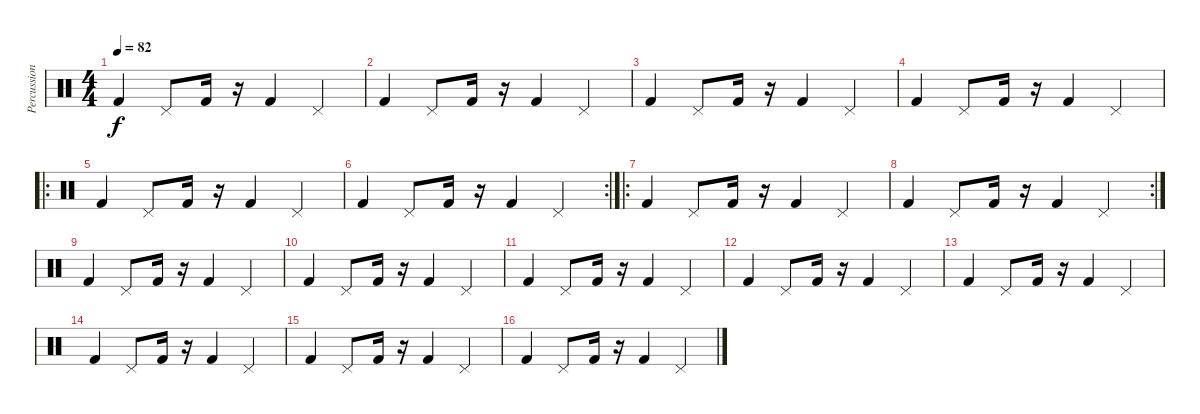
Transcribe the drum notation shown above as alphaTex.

\track ("Percussions" "Percussion") {instrument percussion}
\staff {score}
\articulation defaults
\ts (4 4)
\tempo 82
\clef neutral
\ks c "Kick (hit) 2".4{dy f} "Pedal Hi-Hat (hit)".8 "Kick (hit) 2".16
r.16 "Kick (hit) 2".4 "Pedal Hi-Hat (hit)".4 |
"Kick (hit) 2".4 "Pedal Hi-Hat (hit)".8 "Kick (hit) 2".16 r.16 "Kick (hit) 2".4 "Pedal Hi-Hat (hit)".4 |
"Kick (hit) 2".4 "Pedal Hi-Hat (hit)".8 "Kick (hit) 2".16 r.16 "Kick (hit) 2".4 "Pedal Hi-Hat (hit)".4 |
"Kick (hit) 2".4 "Pedal Hi-Hat (hit)".8 "Kick (hit) 2".16 r.16 "Kick (hit) 2".4 "Pedal Hi-Hat (hit)".4 |
\ro "Kick (hit) 2".4 "Pedal Hi-Hat (hit)".8 "Kick (hit) 2".16
r.16 "Kick (hit) 2".4 "Pedal Hi-Hat (hit)".4 |
\rc 2 "Kick (hit) 2".4 "Pedal Hi-Hat (hit)".8 "Kick (hit) 2".16
r.16 "Kick (hit) 2".4 "Pedal Hi-Hat (hit)".4 |
\ro "Kick (hit) 2".4 "Pedal Hi-Hat (hit)".8 "Kick (hit) 2".16
r.16 "Kick (hit) 2".4 "Pedal Hi-Hat (hit)".4 |
\rc 2 "Kick (hit) 2".4 "Pedal Hi-Hat (hit)".8 "Kick (hit) 2".16
r.16 "Kick (hit) 2".4 "Pedal Hi-Hat (hit)".4 |
"Kick (hit) 2".4 "Pedal Hi-Hat (hit)".8 "Kick (hit) 2".16 r.16 "Kick (hit) 2".4 "Pedal Hi-Hat (hit)".4 |
"Kick (hit) 2".4 "Pedal Hi-Hat (hit)".8 "Kick (hit) 2".16 r.16 "Kick (hit) 2".4 "Pedal Hi-Hat (hit)".4 |
"Kick (hit) 2".4 "Pedal Hi-Hat (hit)".8 "Kick (hit) 2".16 r.16 "Kick (hit) 2".4 "Pedal Hi-Hat (hit)".4 |
"Kick (hit) 2".4 "Pedal Hi-Hat (hit)".8 "Kick (hit) 2".16 r.16 "Kick (hit) 2".4 "Pedal Hi-Hat (hit)".4 |
"Kick (hit) 2".4 "Pedal Hi-Hat (hit)".8 "Kick (hit) 2".16 r.16 "Kick (hit) 2".4 "Pedal Hi-Hat (hit)".4 |
"Kick (hit) 2".4 "Pedal Hi-Hat (hit)".8 "Kick (hit) 2".16 r.16 "Kick (hit) 2".4 "Pedal Hi-Hat (hit)".4 |
"Kick (hit) 2".4 "Pedal Hi-Hat (hit)".8 "Kick (hit) 2".16 r.16 "Kick (hit) 2".4 "Pedal Hi-Hat (hit)".4 |
"Kick (hit) 2".4 "Pedal Hi-Hat (hit)".8 "Kick (hit) 2".16 r.16 "Kick (hit) 2".4 "Pedal Hi-Hat (hit)".4
